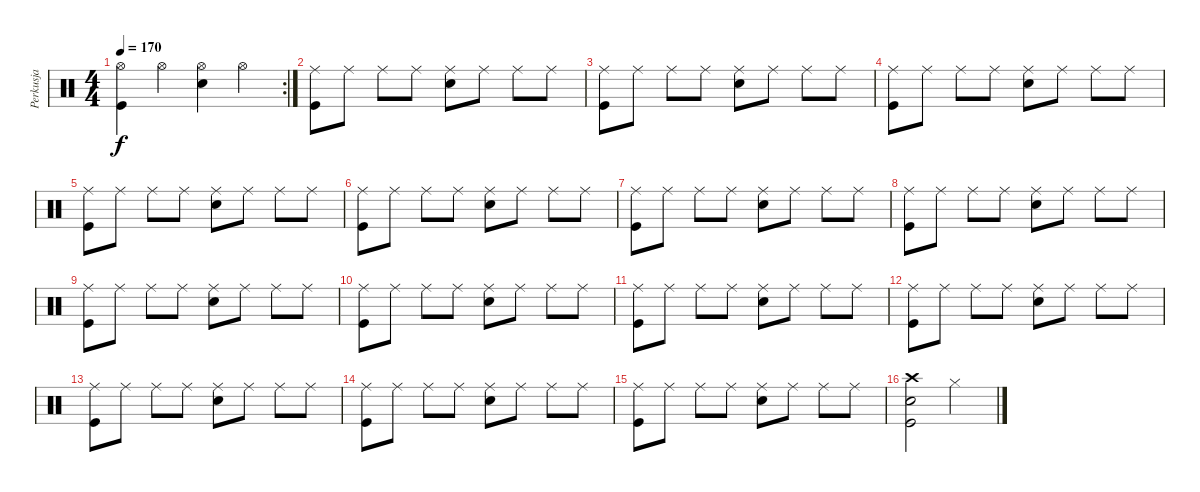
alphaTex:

\track ("Perkusja" "Perkusja") {instrument percussion}
\staff {score}
\articulation defaults
\rc 2
\ts (4 4)
\tempo 170
\clef neutral
\ks c
("Hi-Hat (open)" "Kick (hit)").4{dy f} "Hi-Hat (open)".4 ("Hi-Hat (open)" "Electric Snare (hit)").4 "Hi-Hat (open)".4 |
("Ride (middle)" "Kick (hit)").8 "Ride (middle)".8 "Ride (middle)".8 "Ride (middle)".8 ("Ride (middle)" "Electric Snare (hit)").8 "Ride (middle)".8 "Ride (middle)".8 "Ride (middle)".8 |
("Ride (middle)" "Kick (hit)").8 "Ride (middle)".8 "Ride (middle)".8 "Ride (middle)".8 ("Ride (middle)" "Electric Snare (hit)").8 "Ride (middle)".8 "Ride (middle)".8 "Ride (middle)".8 |
("Ride (middle)" "Kick (hit)").8 "Ride (middle)".8 "Ride (middle)".8 "Ride (middle)".8 ("Ride (middle)" "Electric Snare (hit)").8 "Ride (middle)".8 "Ride (middle)".8 "Ride (middle)".8 |
("Ride (middle)" "Kick (hit)").8 "Ride (middle)".8 "Ride (middle)".8 "Ride (middle)".8 ("Ride (middle)" "Electric Snare (hit)").8 "Ride (middle)".8 "Ride (middle)".8 "Ride (middle)".8 |
("Ride (middle)" "Kick (hit)").8 "Ride (middle)".8 "Ride (middle)".8 "Ride (middle)".8 ("Ride (middle)" "Electric Snare (hit)").8 "Ride (middle)".8 "Ride (middle)".8 "Ride (middle)".8 |
("Ride (middle)" "Kick (hit)").8 "Ride (middle)".8 "Ride (middle)".8 "Ride (middle)".8 ("Ride (middle)" "Electric Snare (hit)").8 "Ride (middle)".8 "Ride (middle)".8 "Ride (middle)".8 |
("Ride (middle)" "Kick (hit)").8 "Ride (middle)".8 "Ride (middle)".8 "Ride (middle)".8 ("Ride (middle)" "Electric Snare (hit)").8 "Ride (middle)".8 "Ride (middle)".8 "Ride (middle)".8 |
("Ride (middle)" "Kick (hit)").8 "Ride (middle)".8 "Ride (middle)".8 "Ride (middle)".8 ("Ride (middle)" "Electric Snare (hit)").8 "Ride (middle)".8 "Ride (middle)".8 "Ride (middle)".8 |
("Ride (middle)" "Kick (hit)").8 "Ride (middle)".8 "Ride (middle)".8 "Ride (middle)".8 ("Ride (middle)" "Electric Snare (hit)").8 "Ride (middle)".8 "Ride (middle)".8 "Ride (middle)".8 |
("Ride (middle)" "Kick (hit)").8 "Ride (middle)".8 "Ride (middle)".8 "Ride (middle)".8 ("Ride (middle)" "Electric Snare (hit)").8 "Ride (middle)".8 "Ride (middle)".8 "Ride (middle)".8 |
("Ride (middle)" "Kick (hit)").8 "Ride (middle)".8 "Ride (middle)".8 "Ride (middle)".8 ("Ride (middle)" "Electric Snare (hit)").8 "Ride (middle)".8 "Ride (middle)".8 "Ride (middle)".8 |
("Ride (middle)" "Kick (hit)").8 "Ride (middle)".8 "Ride (middle)".8 "Ride (middle)".8 ("Ride (middle)" "Electric Snare (hit)").8 "Ride (middle)".8 "Ride (middle)".8 "Ride (middle)".8 |
("Ride (middle)" "Kick (hit)").8 "Ride (middle)".8 "Ride (middle)".8 "Ride (middle)".8 ("Ride (middle)" "Electric Snare (hit)").8 "Ride (middle)".8 "Ride (middle)".8 "Ride (middle)".8 |
("Ride (middle)" "Kick (hit)").8 "Ride (middle)".8 "Ride (middle)".8 "Ride (middle)".8 ("Ride (middle)" "Electric Snare (hit)").8 "Ride (middle)".8 "Ride (middle)".8 "Ride (middle)".8 |
("Crash high (hit)" "Electric Snare (hit)" "Kick (hit)").2 "Hi-Hat (closed)".2
